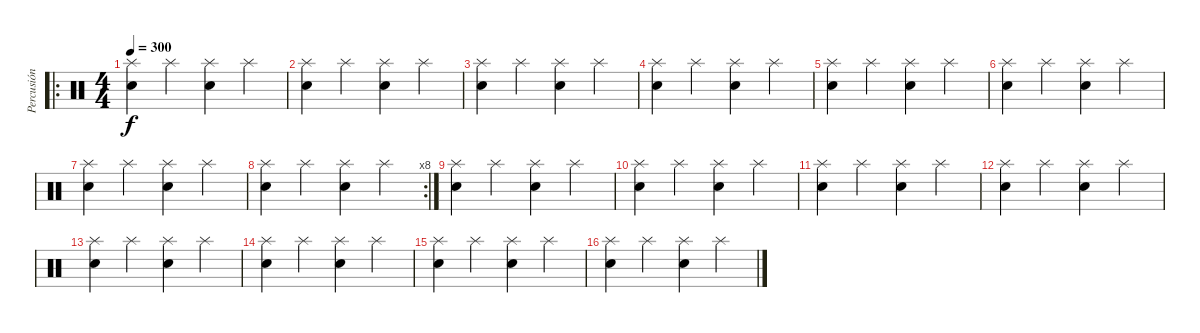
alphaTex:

\track ("Percusión" "Percusión") {instrument percussion}
\staff {score}
\articulation defaults
\ro
\ts (4 4)
\tempo 300
\clef neutral
\ks c
("Electric Snare (hit)" "Splash (hit)").4{dy f} "Splash (hit)".4 ("Electric Snare (hit)" "Splash (hit)").4 "Splash (hit)".4 |
("Electric Snare (hit)" "Splash (hit)").4 "Splash (hit)".4 ("Electric Snare (hit)" "Splash (hit)").4 "Splash (hit)".4 |
("Electric Snare (hit)" "Splash (hit)").4 "Splash (hit)".4 ("Electric Snare (hit)" "Splash (hit)").4 "Splash (hit)".4 |
("Electric Snare (hit)" "Splash (hit)").4 "Splash (hit)".4 ("Electric Snare (hit)" "Splash (hit)").4 "Splash (hit)".4 |
("Electric Snare (hit)" "Splash (hit)").4 "Splash (hit)".4 ("Electric Snare (hit)" "Splash (hit)").4 "Splash (hit)".4 |
("Electric Snare (hit)" "Splash (hit)").4 "Splash (hit)".4 ("Electric Snare (hit)" "Splash (hit)").4 "Splash (hit)".4 |
("Electric Snare (hit)" "Splash (hit)").4 "Splash (hit)".4 ("Electric Snare (hit)" "Splash (hit)").4 "Splash (hit)".4 |
\rc 8
("Electric Snare (hit)" "Splash (hit)").4 "Splash (hit)".4 ("Electric Snare (hit)" "Splash (hit)").4 "Splash (hit)".4 |
("Electric Snare (hit)" "Splash (hit)").4 "Splash (hit)".4 ("Electric Snare (hit)" "Splash (hit)").4 "Splash (hit)".4 |
("Electric Snare (hit)" "Splash (hit)").4 "Splash (hit)".4 ("Electric Snare (hit)" "Splash (hit)").4 "Splash (hit)".4 |
("Electric Snare (hit)" "Splash (hit)").4 "Splash (hit)".4 ("Electric Snare (hit)" "Splash (hit)").4 "Splash (hit)".4 |
("Electric Snare (hit)" "Splash (hit)").4 "Splash (hit)".4 ("Electric Snare (hit)" "Splash (hit)").4 "Splash (hit)".4 |
("Electric Snare (hit)" "Splash (hit)").4 "Splash (hit)".4 ("Electric Snare (hit)" "Splash (hit)").4 "Splash (hit)".4 |
("Electric Snare (hit)" "Splash (hit)").4 "Splash (hit)".4 ("Electric Snare (hit)" "Splash (hit)").4 "Splash (hit)".4 |
("Electric Snare (hit)" "Splash (hit)").4 "Splash (hit)".4 ("Electric Snare (hit)" "Splash (hit)").4 "Splash (hit)".4 |
("Electric Snare (hit)" "Splash (hit)").4 "Splash (hit)".4 ("Electric Snare (hit)" "Splash (hit)").4 "Splash (hit)".4
